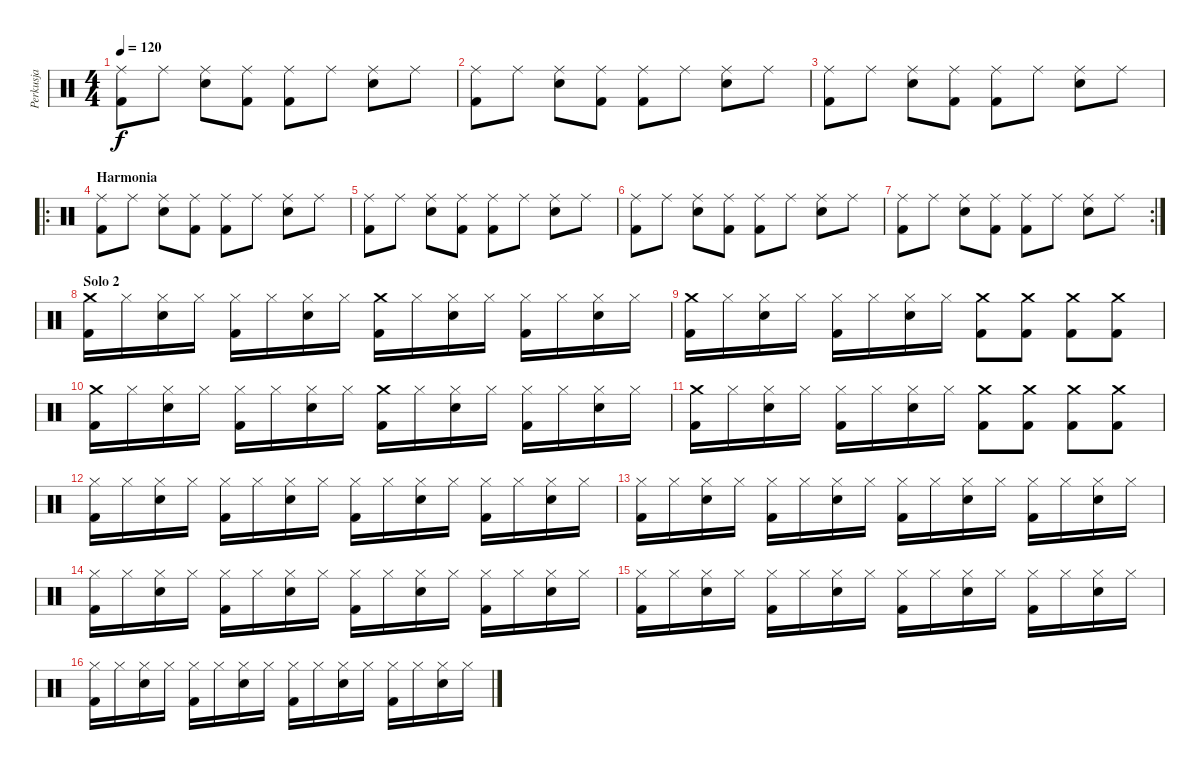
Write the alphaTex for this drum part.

\track ("Perkusja" "Perkusja") {instrument percussion}
\staff {score}
\articulation defaults
\ts (4 4)
\tempo 120
\clef neutral
\ks c
("Ride (middle)" "Kick (hit) 2").8{dy f} "Ride (middle)".8 ("Ride (middle)" "Snare (hit) 2").8 ("Ride (middle)" "Kick (hit) 2").8 ("Ride (middle)" "Kick (hit) 2").8 "Ride (middle)".8 ("Ride (middle)" "Snare (hit) 2").8 "Ride (middle)".8 |
("Ride (middle)" "Kick (hit) 2").8 "Ride (middle)".8 ("Ride (middle)" "Snare (hit) 2").8 ("Ride (middle)" "Kick (hit) 2").8 ("Ride (middle)" "Kick (hit) 2").8 "Ride (middle)".8 ("Ride (middle)" "Snare (hit) 2").8 "Ride (middle)".8 |
("Ride (middle)" "Kick (hit) 2").8 "Ride (middle)".8 ("Ride (middle)" "Snare (hit) 2").8 ("Ride (middle)" "Kick (hit) 2").8 ("Ride (middle)" "Kick (hit) 2").8 "Ride (middle)".8 ("Ride (middle)" "Snare (hit) 2").8 "Ride (middle)".8 |
\ro
\section ("" "Harmonia")
("Ride (middle)" "Kick (hit) 2").8 "Ride (middle)".8 ("Ride (middle)" "Snare (hit) 2").8 ("Ride (middle)" "Kick (hit) 2").8 ("Ride (middle)" "Kick (hit) 2").8 "Ride (middle)".8 ("Ride (middle)" "Snare (hit) 2").8 "Ride (middle)".8 |
("Ride (middle)" "Kick (hit) 2").8 "Ride (middle)".8 ("Ride (middle)" "Snare (hit) 2").8 ("Ride (middle)" "Kick (hit) 2").8 ("Ride (middle)" "Kick (hit) 2").8 "Ride (middle)".8 ("Ride (middle)" "Snare (hit) 2").8 "Ride (middle)".8 |
("Ride (middle)" "Kick (hit) 2").8 "Ride (middle)".8 ("Ride (middle)" "Snare (hit) 2").8 ("Ride (middle)" "Kick (hit) 2").8 ("Ride (middle)" "Kick (hit) 2").8 "Ride (middle)".8 ("Ride (middle)" "Snare (hit) 2").8 "Ride (middle)".8 |
\rc 2
("Ride (middle)" "Kick (hit) 2").8 "Ride (middle)".8 ("Ride (middle)" "Snare (hit) 2").8 ("Ride (middle)" "Kick (hit) 2").8 ("Ride (middle)" "Kick (hit) 2").8 "Ride (middle)".8 ("Ride (middle)" "Snare (hit) 2").8 "Ride (middle)".8 |
\section ("" "Solo 2")
("Crash medium (hit)" "Kick (hit) 2").16 "Hi-Hat (closed)".16 ("Hi-Hat (closed)" "Snare (hit) 2").16 "Hi-Hat (closed)".16 ("Hi-Hat (closed)" "Kick (hit) 2").16 "Hi-Hat (closed)".16 ("Hi-Hat (closed)" "Snare (hit) 2").16 "Hi-Hat (closed)".16 ("Crash medium (hit)" "Kick (hit) 2").16 "Hi-Hat (closed)".16 ("Hi-Hat (closed)" "Snare (hit) 2").16 "Hi-Hat (closed)".16 ("Hi-Hat (closed)" "Kick (hit) 2").16 "Hi-Hat (closed)".16 ("Hi-Hat (closed)" "Snare (hit) 2").16 "Hi-Hat (closed)".16 |
("Crash medium (hit)" "Kick (hit) 2").16 "Hi-Hat (closed)".16 ("Hi-Hat (closed)" "Snare (hit) 2").16 "Hi-Hat (closed)".16 ("Hi-Hat (closed)" "Kick (hit) 2").16 "Hi-Hat (closed)".16 ("Hi-Hat (closed)" "Snare (hit) 2").16 "Hi-Hat (closed)".16 ("Crash medium (hit)" "Kick (hit) 2").8 ("Crash medium (hit)" "Kick (hit) 2").8 ("Crash medium (hit)" "Kick (hit) 2").8 ("Crash medium (hit)" "Kick (hit) 2").8 |
("Crash medium (hit)" "Kick (hit) 2").16 "Hi-Hat (closed)".16 ("Hi-Hat (closed)" "Snare (hit) 2").16 "Hi-Hat (closed)".16 ("Hi-Hat (closed)" "Kick (hit) 2").16 "Hi-Hat (closed)".16 ("Hi-Hat (closed)" "Snare (hit) 2").16 "Hi-Hat (closed)".16 ("Crash medium (hit)" "Kick (hit) 2").16 "Hi-Hat (closed)".16 ("Hi-Hat (closed)" "Snare (hit) 2").16 "Hi-Hat (closed)".16 ("Hi-Hat (closed)" "Kick (hit) 2").16 "Hi-Hat (closed)".16 ("Hi-Hat (closed)" "Snare (hit) 2").16 "Hi-Hat (closed)".16 |
("Crash medium (hit)" "Kick (hit) 2").16 "Hi-Hat (closed)".16 ("Hi-Hat (closed)" "Snare (hit) 2").16 "Hi-Hat (closed)".16 ("Hi-Hat (closed)" "Kick (hit) 2").16 "Hi-Hat (closed)".16 ("Hi-Hat (closed)" "Snare (hit) 2").16 "Hi-Hat (closed)".16 ("Crash medium (hit)" "Kick (hit) 2").8 ("Crash medium (hit)" "Kick (hit) 2").8 ("Crash medium (hit)" "Kick (hit) 2").8 ("Crash medium (hit)" "Kick (hit) 2").8 |
("Hi-Hat (closed)" "Kick (hit) 2").16 "Hi-Hat (closed)".16 ("Hi-Hat (closed)" "Snare (hit) 2").16 "Hi-Hat (closed)".16 ("Hi-Hat (closed)" "Kick (hit) 2").16 "Hi-Hat (closed)".16 ("Hi-Hat (closed)" "Snare (hit) 2").16 "Hi-Hat (closed)".16 ("Hi-Hat (closed)" "Kick (hit) 2").16 "Hi-Hat (closed)".16 ("Hi-Hat (closed)" "Snare (hit) 2").16 "Hi-Hat (closed)".16 ("Hi-Hat (closed)" "Kick (hit) 2").16 "Hi-Hat (closed)".16 ("Hi-Hat (closed)" "Snare (hit) 2").16 "Hi-Hat (closed)".16 |
("Hi-Hat (closed)" "Kick (hit) 2").16 "Hi-Hat (closed)".16 ("Hi-Hat (closed)" "Snare (hit) 2").16 "Hi-Hat (closed)".16 ("Hi-Hat (closed)" "Kick (hit) 2").16 "Hi-Hat (closed)".16 ("Hi-Hat (closed)" "Snare (hit) 2").16 "Hi-Hat (closed)".16 ("Hi-Hat (closed)" "Kick (hit) 2").16 "Hi-Hat (closed)".16 ("Hi-Hat (closed)" "Snare (hit) 2").16 "Hi-Hat (closed)".16 ("Hi-Hat (closed)" "Kick (hit) 2").16 "Hi-Hat (closed)".16 ("Hi-Hat (closed)" "Snare (hit) 2").16 "Hi-Hat (closed)".16 |
("Hi-Hat (closed)" "Kick (hit) 2").16 "Hi-Hat (closed)".16 ("Hi-Hat (closed)" "Snare (hit) 2").16 "Hi-Hat (closed)".16 ("Hi-Hat (closed)" "Kick (hit) 2").16 "Hi-Hat (closed)".16 ("Hi-Hat (closed)" "Snare (hit) 2").16 "Hi-Hat (closed)".16 ("Hi-Hat (closed)" "Kick (hit) 2").16 "Hi-Hat (closed)".16 ("Hi-Hat (closed)" "Snare (hit) 2").16 "Hi-Hat (closed)".16 ("Hi-Hat (closed)" "Kick (hit) 2").16 "Hi-Hat (closed)".16 ("Hi-Hat (closed)" "Snare (hit) 2").16 "Hi-Hat (closed)".16 |
("Hi-Hat (closed)" "Kick (hit) 2").16 "Hi-Hat (closed)".16 ("Hi-Hat (closed)" "Snare (hit) 2").16 "Hi-Hat (closed)".16 ("Hi-Hat (closed)" "Kick (hit) 2").16 "Hi-Hat (closed)".16 ("Hi-Hat (closed)" "Snare (hit) 2").16 "Hi-Hat (closed)".16 ("Hi-Hat (closed)" "Kick (hit) 2").16 "Hi-Hat (closed)".16 ("Hi-Hat (closed)" "Snare (hit) 2").16 "Hi-Hat (closed)".16 ("Hi-Hat (closed)" "Kick (hit) 2").16 "Hi-Hat (closed)".16 ("Hi-Hat (closed)" "Snare (hit) 2").16 "Hi-Hat (closed)".16 |
("Hi-Hat (closed)" "Kick (hit) 2").16 "Hi-Hat (closed)".16 ("Hi-Hat (closed)" "Snare (hit) 2").16 "Hi-Hat (closed)".16 ("Hi-Hat (closed)" "Kick (hit) 2").16 "Hi-Hat (closed)".16 ("Hi-Hat (closed)" "Snare (hit) 2").16 "Hi-Hat (closed)".16 ("Hi-Hat (closed)" "Kick (hit) 2").16 "Hi-Hat (closed)".16 ("Hi-Hat (closed)" "Snare (hit) 2").16 "Hi-Hat (closed)".16 ("Hi-Hat (closed)" "Kick (hit) 2").16 "Hi-Hat (closed)".16 ("Hi-Hat (closed)" "Snare (hit) 2").16 "Hi-Hat (closed)".16
